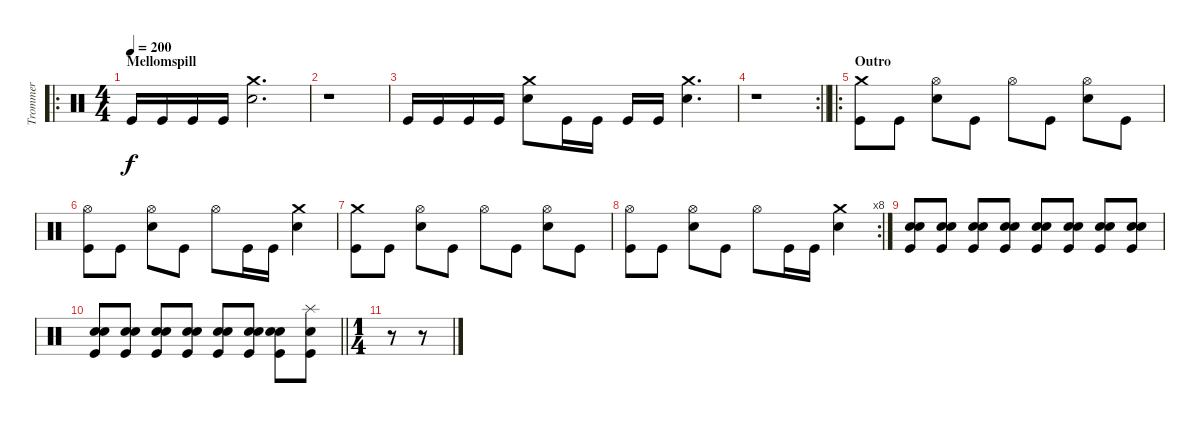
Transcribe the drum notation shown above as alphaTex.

\track ("Trommer" "Trommer") {instrument percussion}
\staff {score}
\articulation defaults
\ro
\ts (4 4)
\section ("" "Mellomspill")
\tempo 200
\clef neutral
\ks c "Kick (hit)".16{dy f} "Kick (hit)".16 "Kick (hit)".16 "Kick (hit)".16
("Crash medium (hit)" "Snare (hit) 2").2{d} |
r.1 |
"Kick (hit)".16 "Kick (hit)".16 "Kick (hit)".16 "Kick (hit)".16 ("Crash medium (hit)" "Snare (hit) 2").8 "Kick (hit)".16 "Kick (hit)".16 "Kick (hit)".16 "Kick (hit)".16 ("Crash medium (hit)" "Snare (hit) 2").4{d} |
\rc 2
\barLineRight lightlight
r.1 |
\ro
\section ("" "Outro")
("Crash medium (hit)" "Kick (hit)").8 "Kick (hit)".8 ("Hi-Hat (open)" "Snare (hit) 2").8 "Kick (hit)".8 "Hi-Hat (open)".8 "Kick (hit)".8 ("Hi-Hat (open)" "Snare (hit) 2").8 "Kick (hit)".8 |
("Hi-Hat (open)" "Kick (hit)").8 "Kick (hit)".8 ("Hi-Hat (open)" "Snare (hit) 2").8 "Kick (hit)".8 "Hi-Hat (open)".8 "Kick (hit)".16 "Kick (hit)".16 ("Crash medium (hit)" "Snare (hit) 2").4 |
("Crash medium (hit)" "Kick (hit)").8 "Kick (hit)".8 ("Hi-Hat (open)" "Snare (hit) 2").8 "Kick (hit)".8 "Hi-Hat (open)".8 "Kick (hit)".8 ("Hi-Hat (open)" "Snare (hit) 2").8 "Kick (hit)".8 |
\rc 8
("Hi-Hat (open)" "Kick (hit)").8 "Kick (hit)".8 ("Hi-Hat (open)" "Snare (hit) 2").8 "Kick (hit)".8 "Hi-Hat (open)".8 "Kick (hit)".16 "Kick (hit)".16 ("Crash medium (hit)" "Snare (hit) 2").4 |
("Snare (hit) 2" "Snare (hit) 2" "Kick (hit)").8 ("Snare (hit) 2" "Snare (hit) 2" "Kick (hit)").8 ("Snare (hit) 2" "Snare (hit) 2" "Kick (hit)").8 ("Snare (hit) 2" "Snare (hit) 2" "Kick (hit)").8 ("Snare (hit) 2" "Snare (hit) 2" "Kick (hit)").8 ("Snare (hit) 2" "Snare (hit) 2" "Kick (hit)").8 ("Snare (hit) 2" "Snare (hit) 2" "Kick (hit)").8 ("Snare (hit) 2" "Snare (hit) 2" "Kick (hit)").8 |
\barLineRight lightlight
("Snare (hit) 2" "Snare (hit) 2" "Kick (hit)").8 ("Snare (hit) 2" "Snare (hit) 2" "Kick (hit)").8 ("Snare (hit) 2" "Snare (hit) 2" "Kick (hit)").8 ("Snare (hit) 2" "Snare (hit) 2" "Kick (hit)").8 ("Snare (hit) 2" "Snare (hit) 2" "Kick (hit)").8 ("Snare (hit) 2" "Snare (hit) 2" "Kick (hit)").8 ("Snare (hit) 2" "Snare (hit) 2" "Kick (hit)").8 ("Splash (hit)" "Snare (hit) 2" "Kick (hit)").8 |
\ts (1 4)
r.8 r.8{volume 0}
